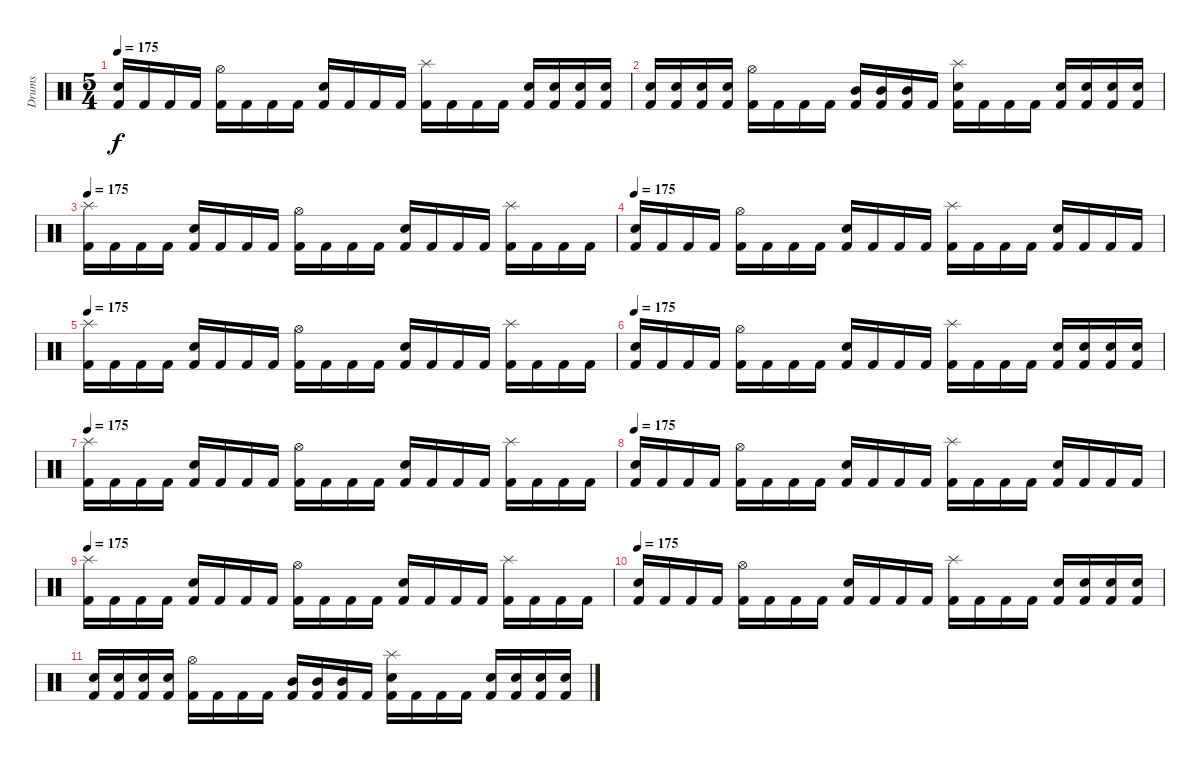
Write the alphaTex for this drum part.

\track ("Drums" "Drums") {instrument percussion}
\staff {score}
\articulation defaults
\ts (5 4)
\tempo 175
\clef neutral
\ks c
("Snare (hit) 2" "Kick (hit) 2").16{dy f} "Kick (hit) 2".16 "Kick (hit) 2".16 "Kick (hit) 2".16 ("Hi-Hat (open)" "Kick (hit) 2").16 "Kick (hit) 2".16 "Kick (hit) 2".16 "Kick (hit) 2".16 ("Snare (hit) 2" "Kick (hit) 2").16 "Kick (hit) 2".16 "Kick (hit) 2".16 "Kick (hit) 2".16 ("Splash (hit)" "Kick (hit) 2").16 "Kick (hit) 2".16 "Kick (hit) 2".16 "Kick (hit) 2".16 ("Electric Snare (hit)" "Kick (hit) 2").16 ("Electric Snare (hit)" "Kick (hit) 2").16 ("Electric Snare (hit)" "Kick (hit) 2").16 ("Electric Snare (hit)" "Kick (hit) 2").16 |
("Snare (hit) 2" "Kick (hit) 2").16 ("Snare (hit) 2" "Kick (hit) 2").16 ("Snare (hit) 2" "Kick (hit) 2").16 ("Snare (hit) 2" "Kick (hit) 2").16 ("Hi-Hat (open)" "Kick (hit) 2").16 "Kick (hit) 2".16 "Kick (hit) 2".16 "Kick (hit) 2".16 ("Mid Tom (hit)" "Kick (hit) 2").16 ("Mid Tom (hit)" "Kick (hit) 2").16 ("Mid Tom (hit)" "Kick (hit) 2").16 "Kick (hit) 2".16 ("Splash (hit)" "Snare (hit) 2" "Kick (hit) 2").16 "Kick (hit) 2".16 "Kick (hit) 2".16 "Kick (hit) 2".16 ("Electric Snare (hit)" "Kick (hit) 2").16 ("Electric Snare (hit)" "Kick (hit) 2").16 ("Electric Snare (hit)" "Kick (hit) 2").16 ("Electric Snare (hit)" "Kick (hit) 2").16 |
\tempo 175
("Splash (hit)" "Kick (hit) 2").16 "Kick (hit) 2".16 "Kick (hit) 2".16 "Kick (hit) 2".16 ("Snare (hit) 2" "Kick (hit) 2").16 "Kick (hit) 2".16 "Kick (hit) 2".16 "Kick (hit) 2".16 ("Hi-Hat (open)" "Kick (hit) 2").16 "Kick (hit) 2".16 "Kick (hit) 2".16 "Kick (hit) 2".16 ("Snare (hit) 2" "Kick (hit) 2").16 "Kick (hit) 2".16 "Kick (hit) 2".16 "Kick (hit) 2".16 ("Splash (hit)" "Kick (hit) 2").16 "Kick (hit) 2".16 "Kick (hit) 2".16 "Kick (hit) 2".16 |
\tempo 175
("Snare (hit) 2" "Kick (hit) 2").16 "Kick (hit) 2".16 "Kick (hit) 2".16 "Kick (hit) 2".16 ("Hi-Hat (open)" "Kick (hit) 2").16 "Kick (hit) 2".16 "Kick (hit) 2".16 "Kick (hit) 2".16 ("Snare (hit) 2" "Kick (hit) 2").16 "Kick (hit) 2".16 "Kick (hit) 2".16 "Kick (hit) 2".16 ("Splash (hit)" "Kick (hit) 2").16 "Kick (hit) 2".16 "Kick (hit) 2".16 "Kick (hit) 2".16 ("Snare (hit) 2" "Kick (hit) 2").16 "Kick (hit) 2".16 "Kick (hit) 2".16 "Kick (hit) 2".16 |
\tempo 175
("Splash (hit)" "Kick (hit) 2").16 "Kick (hit) 2".16 "Kick (hit) 2".16 "Kick (hit) 2".16 ("Snare (hit) 2" "Kick (hit) 2").16 "Kick (hit) 2".16 "Kick (hit) 2".16 "Kick (hit) 2".16 ("Hi-Hat (open)" "Kick (hit) 2").16 "Kick (hit) 2".16 "Kick (hit) 2".16 "Kick (hit) 2".16 ("Snare (hit) 2" "Kick (hit) 2").16 "Kick (hit) 2".16 "Kick (hit) 2".16 "Kick (hit) 2".16 ("Splash (hit)" "Kick (hit) 2").16 "Kick (hit) 2".16 "Kick (hit) 2".16 "Kick (hit) 2".16 |
\tempo 175
("Snare (hit) 2" "Kick (hit) 2").16 "Kick (hit) 2".16 "Kick (hit) 2".16 "Kick (hit) 2".16 ("Hi-Hat (open)" "Kick (hit) 2").16 "Kick (hit) 2".16 "Kick (hit) 2".16 "Kick (hit) 2".16 ("Snare (hit) 2" "Kick (hit) 2").16 "Kick (hit) 2".16 "Kick (hit) 2".16 "Kick (hit) 2".16 ("Splash (hit)" "Kick (hit) 2").16 "Kick (hit) 2".16 "Kick (hit) 2".16 "Kick (hit) 2".16 ("Electric Snare (hit)" "Kick (hit) 2").16 ("Electric Snare (hit)" "Kick (hit) 2").16 ("Electric Snare (hit)" "Kick (hit) 2").16 ("Electric Snare (hit)" "Kick (hit) 2").16 |
\tempo 175
("Splash (hit)" "Kick (hit) 2").16 "Kick (hit) 2".16 "Kick (hit) 2".16 "Kick (hit) 2".16 ("Snare (hit) 2" "Kick (hit) 2").16 "Kick (hit) 2".16 "Kick (hit) 2".16 "Kick (hit) 2".16 ("Hi-Hat (open)" "Kick (hit) 2").16 "Kick (hit) 2".16 "Kick (hit) 2".16 "Kick (hit) 2".16 ("Snare (hit) 2" "Kick (hit) 2").16 "Kick (hit) 2".16 "Kick (hit) 2".16 "Kick (hit) 2".16 ("Splash (hit)" "Kick (hit) 2").16 "Kick (hit) 2".16 "Kick (hit) 2".16 "Kick (hit) 2".16 |
\tempo 175
("Snare (hit) 2" "Kick (hit) 2").16 "Kick (hit) 2".16 "Kick (hit) 2".16 "Kick (hit) 2".16 ("Hi-Hat (open)" "Kick (hit) 2").16 "Kick (hit) 2".16 "Kick (hit) 2".16 "Kick (hit) 2".16 ("Snare (hit) 2" "Kick (hit) 2").16 "Kick (hit) 2".16 "Kick (hit) 2".16 "Kick (hit) 2".16 ("Splash (hit)" "Kick (hit) 2").16 "Kick (hit) 2".16 "Kick (hit) 2".16 "Kick (hit) 2".16 ("Snare (hit) 2" "Kick (hit) 2").16 "Kick (hit) 2".16 "Kick (hit) 2".16 "Kick (hit) 2".16 |
\tempo 175
("Splash (hit)" "Kick (hit) 2").16 "Kick (hit) 2".16 "Kick (hit) 2".16 "Kick (hit) 2".16 ("Snare (hit) 2" "Kick (hit) 2").16 "Kick (hit) 2".16 "Kick (hit) 2".16 "Kick (hit) 2".16 ("Hi-Hat (open)" "Kick (hit) 2").16 "Kick (hit) 2".16 "Kick (hit) 2".16 "Kick (hit) 2".16 ("Snare (hit) 2" "Kick (hit) 2").16 "Kick (hit) 2".16 "Kick (hit) 2".16 "Kick (hit) 2".16 ("Splash (hit)" "Kick (hit) 2").16 "Kick (hit) 2".16 "Kick (hit) 2".16 "Kick (hit) 2".16 |
\tempo 175
("Snare (hit) 2" "Kick (hit) 2").16 "Kick (hit) 2".16 "Kick (hit) 2".16 "Kick (hit) 2".16 ("Hi-Hat (open)" "Kick (hit) 2").16 "Kick (hit) 2".16 "Kick (hit) 2".16 "Kick (hit) 2".16 ("Snare (hit) 2" "Kick (hit) 2").16 "Kick (hit) 2".16 "Kick (hit) 2".16 "Kick (hit) 2".16 ("Splash (hit)" "Kick (hit) 2").16 "Kick (hit) 2".16 "Kick (hit) 2".16 "Kick (hit) 2".16 ("Electric Snare (hit)" "Kick (hit) 2").16 ("Electric Snare (hit)" "Kick (hit) 2").16 ("Electric Snare (hit)" "Kick (hit) 2").16 ("Electric Snare (hit)" "Kick (hit) 2").16 |
("Snare (hit) 2" "Kick (hit) 2").16 ("Snare (hit) 2" "Kick (hit) 2").16 ("Snare (hit) 2" "Kick (hit) 2").16 ("Snare (hit) 2" "Kick (hit) 2").16 ("Hi-Hat (open)" "Kick (hit) 2").16 "Kick (hit) 2".16 "Kick (hit) 2".16 "Kick (hit) 2".16 ("Mid Tom (hit)" "Kick (hit) 2").16 ("Mid Tom (hit)" "Kick (hit) 2").16 ("Mid Tom (hit)" "Kick (hit) 2").16 "Kick (hit) 2".16 ("Splash (hit)" "Snare (hit) 2" "Kick (hit) 2").16 "Kick (hit) 2".16 "Kick (hit) 2".16 "Kick (hit) 2".16 ("Electric Snare (hit)" "Kick (hit) 2").16 ("Electric Snare (hit)" "Kick (hit) 2").16 ("Electric Snare (hit)" "Kick (hit) 2").16 ("Electric Snare (hit)" "Kick (hit) 2").16
